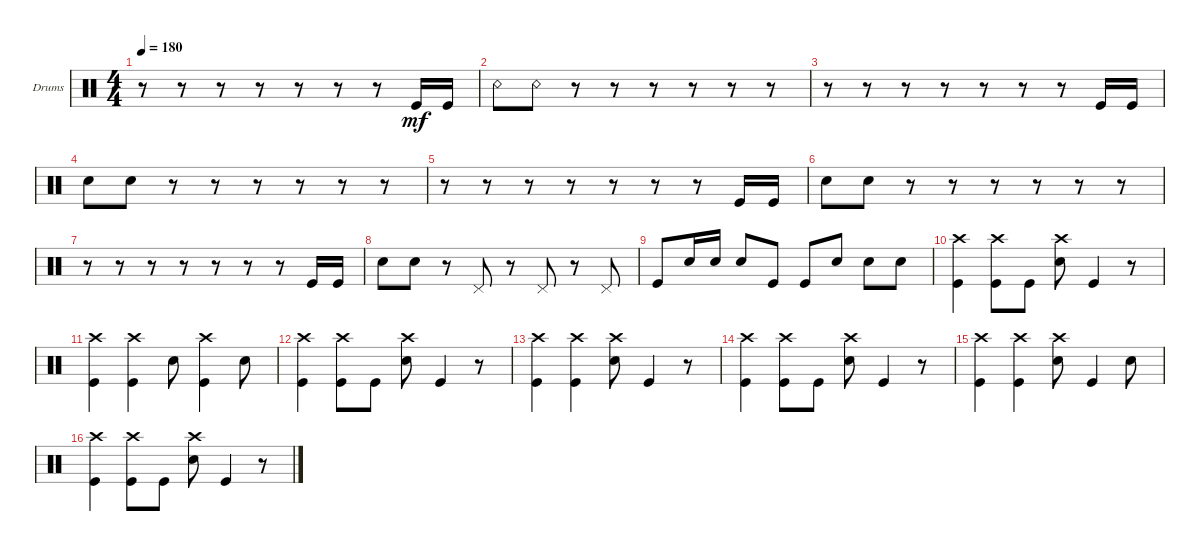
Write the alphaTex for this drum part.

\bracketExtendMode groupsimilarinstruments
\firstSystemTrackNameOrientation horizontal
\otherSystemsTrackNameOrientation horizontal
\track ("Drumkit" "Drums") {instrument percussion}
\staff {score}
\articulation defaults
\ts (4 4)
\tempo 180
\clef neutral
\ks c
r.8{dy mf} r.8 r.8 r.8 r.8 r.8 r.8 "Kick (hit)".16 "Kick (hit)".16 |
"Snare (rim shot)".8 "Snare (rim shot)".8 r.8 r.8 r.8 r.8 r.8 r.8 |
r.8 r.8 r.8 r.8 r.8 r.8 r.8 "Kick (hit)".16 "Kick (hit)".16 |
"Snare (hit) 2".8 "Snare (hit) 2".8 r.8 r.8 r.8 r.8 r.8 r.8 |
r.8 r.8 r.8 r.8 r.8 r.8 r.8 "Kick (hit)".16 "Kick (hit)".16 |
"Snare (hit) 2".8 "Snare (hit) 2".8 r.8 r.8 r.8 r.8 r.8 r.8 |
r.8 r.8 r.8 r.8 r.8 r.8 r.8 "Kick (hit)".16 "Kick (hit)".16 |
"Snare (hit) 2".8 "Snare (hit) 2".8 r.8 "Pedal Hi-Hat (hit)".8 r.8 "Pedal Hi-Hat (hit)".8 r.8 "Pedal Hi-Hat (hit)".8 |
"Kick (hit)".8 "Snare (hit) 2".16 "Snare (hit) 2".16 "Snare (hit) 2".8 "Kick (hit)".8 "Kick (hit)".8 "Snare (hit) 2".8 "Snare (hit) 2".8 "Snare (hit) 2".8 |
("Kick (hit)" "Crash high (hit)").4 ("Kick (hit)" "Crash high (hit)").8 "Kick (hit)".8 ("Snare (hit) 2" "Crash high (hit)").8 "Kick (hit)".4 r.8 |
("Kick (hit)" "Crash high (hit)").4 ("Kick (hit)" "Crash high (hit)").4 "Snare (hit) 2".8 ("Kick (hit)" "Crash high (hit)").4 "Snare (hit) 2".8 |
("Kick (hit)" "Crash high (hit)").4 ("Kick (hit)" "Crash high (hit)").8 "Kick (hit)".8 ("Snare (hit) 2" "Crash high (hit)").8 "Kick (hit)".4 r.8 |
("Kick (hit)" "Crash high (hit)").4 ("Kick (hit)" "Crash high (hit)").4 ("Snare (hit) 2" "Crash high (hit)").8 "Kick (hit)".4 r.8 |
("Kick (hit)" "Crash high (hit)").4 ("Kick (hit)" "Crash high (hit)").8 "Kick (hit)".8 ("Snare (hit) 2" "Crash high (hit)").8 "Kick (hit)".4 r.8 |
("Kick (hit)" "Crash high (hit)").4 ("Kick (hit)" "Crash high (hit)").4 ("Snare (hit) 2" "Crash high (hit)").8 "Kick (hit)".4 "Snare (hit) 2".8 |
("Kick (hit)" "Crash high (hit)").4 ("Kick (hit)" "Crash high (hit)").8 "Kick (hit)".8 ("Snare (hit) 2" "Crash high (hit)").8 "Kick (hit)".4 r.8
